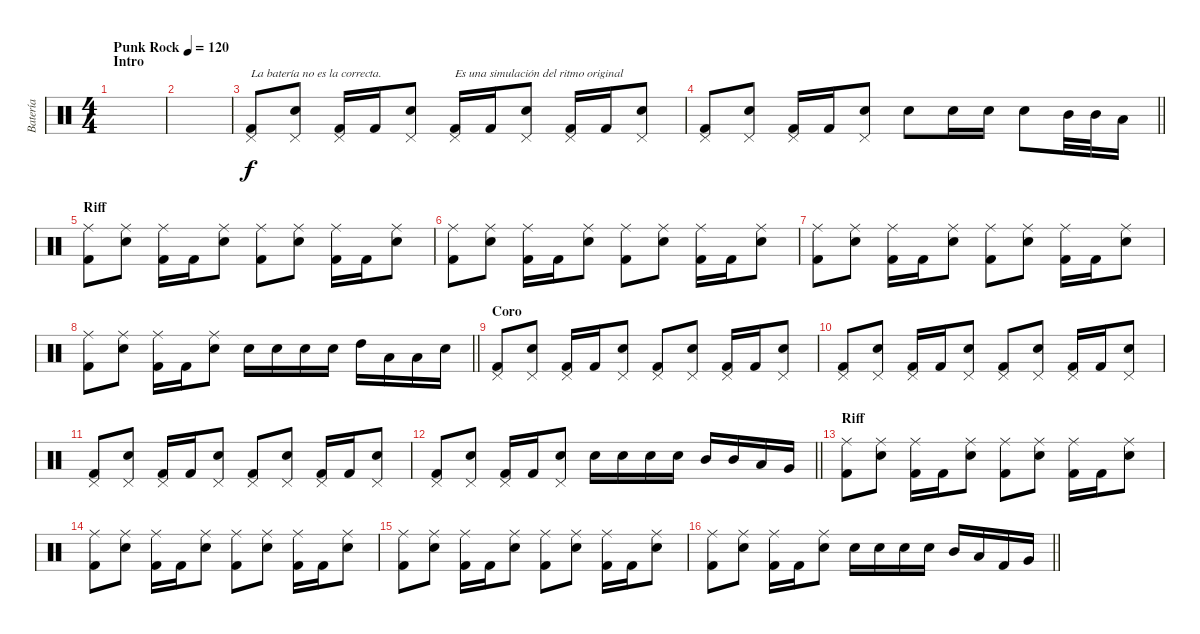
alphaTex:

\track ("Batería" "Batería") {instrument percussion}
\staff {score}
\articulation defaults
\ts (4 4)
\section ("" "Intro")
\tempo (120 "Punk Rock")
\clef neutral
\ks c
|
|
("Pedal Hi-Hat (hit)" "Kick (hit) 2").8{txt "La batería no es la correcta."} ("Snare (hit) 2" "Pedal Hi-Hat (hit)").8 ("Kick (hit) 2" "Pedal Hi-Hat (hit)").16 "Kick (hit) 2".16 ("Pedal Hi-Hat (hit)" "Snare (hit) 2").8 ("Kick (hit) 2" "Pedal Hi-Hat (hit)").16{txt "Es una simulación del ritmo original"} "Kick (hit) 2".16 ("Pedal Hi-Hat (hit)" "Snare (hit) 2").8 ("Kick (hit) 2" "Pedal Hi-Hat (hit)").16 "Kick (hit) 2".16 ("Pedal Hi-Hat (hit)" "Snare (hit) 2").8 |
\barLineRight lightlight
("Pedal Hi-Hat (hit)" "Kick (hit) 2").8 ("Snare (hit) 2" "Pedal Hi-Hat (hit)").8 ("Kick (hit) 2" "Pedal Hi-Hat (hit)").16 "Kick (hit) 2".16 ("Pedal Hi-Hat (hit)" "Snare (hit) 2").8 "Snare (hit) 2".8 "Snare (hit) 2".16 "Snare (hit) 2".16 "Snare (hit) 2".8 "Mid Tom (hit)".32 "Mid Tom (hit)".32 "Low Tom (hit)".16 |
\section ("" "Riff")
("Ride (middle)" "Kick (hit) 2").8 ("Snare (hit) 2" "Ride (middle)").8 ("Kick (hit) 2" "Ride (middle)").16 "Kick (hit) 2".16 ("Snare (hit) 2" "Ride (middle)").8 ("Ride (middle)" "Kick (hit) 2").8 ("Snare (hit) 2" "Ride (middle)").8 ("Kick (hit) 2" "Ride (middle)").16 "Kick (hit) 2".16 ("Snare (hit) 2" "Ride (middle)").8 |
("Ride (middle)" "Kick (hit) 2").8 ("Snare (hit) 2" "Ride (middle)").8 ("Kick (hit) 2" "Ride (middle)").16 "Kick (hit) 2".16 ("Snare (hit) 2" "Ride (middle)").8 ("Ride (middle)" "Kick (hit) 2").8 ("Snare (hit) 2" "Ride (middle)").8 ("Kick (hit) 2" "Ride (middle)").16 "Kick (hit) 2".16 ("Snare (hit) 2" "Ride (middle)").8 |
("Ride (middle)" "Kick (hit) 2").8 ("Snare (hit) 2" "Ride (middle)").8 ("Kick (hit) 2" "Ride (middle)").16 "Kick (hit) 2".16 ("Snare (hit) 2" "Ride (middle)").8 ("Ride (middle)" "Kick (hit) 2").8 ("Snare (hit) 2" "Ride (middle)").8 ("Kick (hit) 2" "Ride (middle)").16 "Kick (hit) 2".16 ("Snare (hit) 2" "Ride (middle)").8 |
\barLineRight lightlight
("Ride (middle)" "Kick (hit) 2").8 ("Snare (hit) 2" "Ride (middle)").8 ("Kick (hit) 2" "Ride (middle)").16 "Kick (hit) 2".16 ("Snare (hit) 2" "Ride (middle)").8 "Snare (hit) 2".16 "Snare (hit) 2".16 "Snare (hit) 2".16 "Snare (hit) 2".16 "High Tom (hit)".16 "Low Tom (hit)".16 "Low Floor Tom (hit)".16 "Snare (hit) 2".16 |
\section ("" "Coro")
("Pedal Hi-Hat (hit)" "Kick (hit) 2").8 ("Snare (hit) 2" "Pedal Hi-Hat (hit)").8 ("Kick (hit) 2" "Pedal Hi-Hat (hit)").16 "Kick (hit) 2".16 ("Pedal Hi-Hat (hit)" "Snare (hit) 2").8 ("Pedal Hi-Hat (hit)" "Kick (hit) 2").8 ("Snare (hit) 2" "Pedal Hi-Hat (hit)").8 ("Kick (hit) 2" "Pedal Hi-Hat (hit)").16 "Kick (hit) 2".16 ("Pedal Hi-Hat (hit)" "Snare (hit) 2").8 |
("Pedal Hi-Hat (hit)" "Kick (hit) 2").8 ("Snare (hit) 2" "Pedal Hi-Hat (hit)").8 ("Kick (hit) 2" "Pedal Hi-Hat (hit)").16 "Kick (hit) 2".16 ("Pedal Hi-Hat (hit)" "Snare (hit) 2").8 ("Pedal Hi-Hat (hit)" "Kick (hit) 2").8 ("Snare (hit) 2" "Pedal Hi-Hat (hit)").8 ("Kick (hit) 2" "Pedal Hi-Hat (hit)").16 "Kick (hit) 2".16 ("Pedal Hi-Hat (hit)" "Snare (hit) 2").8 |
("Pedal Hi-Hat (hit)" "Kick (hit) 2").8 ("Snare (hit) 2" "Pedal Hi-Hat (hit)").8 ("Kick (hit) 2" "Pedal Hi-Hat (hit)").16 "Kick (hit) 2".16 ("Pedal Hi-Hat (hit)" "Snare (hit) 2").8 ("Pedal Hi-Hat (hit)" "Kick (hit) 2").8 ("Snare (hit) 2" "Pedal Hi-Hat (hit)").8 ("Kick (hit) 2" "Pedal Hi-Hat (hit)").16 "Kick (hit) 2".16 ("Pedal Hi-Hat (hit)" "Snare (hit) 2").8 |
\barLineRight lightlight
("Pedal Hi-Hat (hit)" "Kick (hit) 2").8 ("Snare (hit) 2" "Pedal Hi-Hat (hit)").8 ("Kick (hit) 2" "Pedal Hi-Hat (hit)").16 "Kick (hit) 2".16 ("Pedal Hi-Hat (hit)" "Snare (hit) 2").8 "Snare (hit) 2".16 "Snare (hit) 2".16 "Snare (hit) 2".16 "Snare (hit) 2".16 "Mid Tom (hit)".16 "Mid Tom (hit)".16 "Low Tom (hit)".16 "Very Low Tom (hit)".16 |
\section ("" "Riff")
("Ride (middle)" "Kick (hit) 2").8 ("Snare (hit) 2" "Ride (middle)").8 ("Kick (hit) 2" "Ride (middle)").16 "Kick (hit) 2".16 ("Snare (hit) 2" "Ride (middle)").8 ("Ride (middle)" "Kick (hit) 2").8 ("Snare (hit) 2" "Ride (middle)").8 ("Kick (hit) 2" "Ride (middle)").16 "Kick (hit) 2".16 ("Snare (hit) 2" "Ride (middle)").8 |
("Ride (middle)" "Kick (hit) 2").8 ("Snare (hit) 2" "Ride (middle)").8 ("Kick (hit) 2" "Ride (middle)").16 "Kick (hit) 2".16 ("Snare (hit) 2" "Ride (middle)").8 ("Ride (middle)" "Kick (hit) 2").8 ("Snare (hit) 2" "Ride (middle)").8 ("Kick (hit) 2" "Ride (middle)").16 "Kick (hit) 2".16 ("Snare (hit) 2" "Ride (middle)").8 |
("Ride (middle)" "Kick (hit) 2").8 ("Snare (hit) 2" "Ride (middle)").8 ("Kick (hit) 2" "Ride (middle)").16 "Kick (hit) 2".16 ("Snare (hit) 2" "Ride (middle)").8 ("Ride (middle)" "Kick (hit) 2").8 ("Snare (hit) 2" "Ride (middle)").8 ("Kick (hit) 2" "Ride (middle)").16 "Kick (hit) 2".16 ("Snare (hit) 2" "Ride (middle)").8 |
\barLineRight lightlight
("Ride (middle)" "Kick (hit) 2").8 ("Snare (hit) 2" "Ride (middle)").8 ("Kick (hit) 2" "Ride (middle)").16 "Kick (hit) 2".16 ("Snare (hit) 2" "Ride (middle)").8 "Snare (hit) 2".16 "Snare (hit) 2".16 "Snare (hit) 2".16 "Snare (hit) 2".16 "Mid Tom (hit)".16 "Low Tom (hit)".16 "Kick (hit) 2".16 "Very Low Tom (hit)".16
